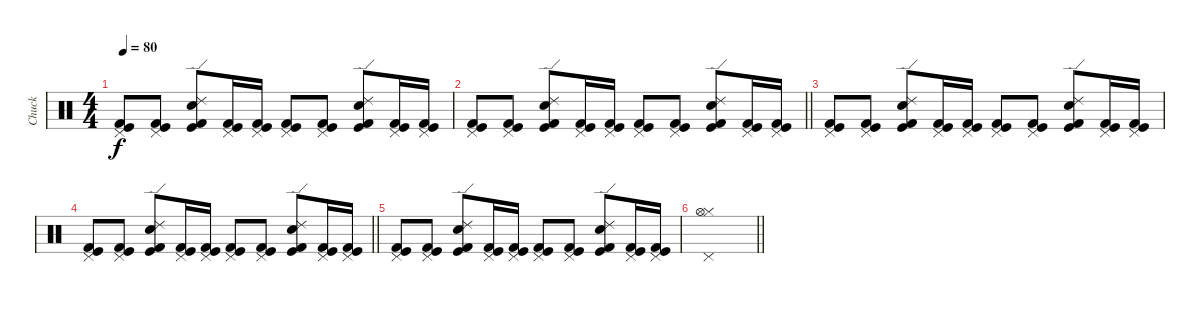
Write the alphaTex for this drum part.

\track ("Chuck" "Chuck") {instrument percussion}
\staff {score}
\articulation defaults
\ts (4 4)
\tempo 80
\clef neutral
\ks c
("Pedal Hi-Hat (hit)" "Kick (hit)" "Kick (hit) 2").8{dy f} ("Pedal Hi-Hat (hit)" "Kick (hit)" "Kick (hit) 2").8 ("Ride (edge) 2" "Kick (hit)" "Kick (hit) 2" "Electric Snare (hit)").8 ("Pedal Hi-Hat (hit)" "Kick (hit)" "Kick (hit) 2").16 ("Pedal Hi-Hat (hit)" "Kick (hit)" "Kick (hit) 2").16 ("Pedal Hi-Hat (hit)" "Kick (hit)" "Kick (hit) 2").8 ("Pedal Hi-Hat (hit)" "Kick (hit)" "Kick (hit) 2").8 ("Ride (edge) 2" "Kick (hit)" "Kick (hit) 2" "Electric Snare (hit)").8 ("Pedal Hi-Hat (hit)" "Kick (hit)" "Kick (hit) 2").16 ("Pedal Hi-Hat (hit)" "Kick (hit)" "Kick (hit) 2").16 |
\barLineRight lightlight
("Pedal Hi-Hat (hit)" "Kick (hit)" "Kick (hit) 2").8 ("Pedal Hi-Hat (hit)" "Kick (hit)" "Kick (hit) 2").8 ("Ride (edge) 2" "Kick (hit)" "Kick (hit) 2" "Electric Snare (hit)").8 ("Pedal Hi-Hat (hit)" "Kick (hit)" "Kick (hit) 2").16 ("Pedal Hi-Hat (hit)" "Kick (hit)" "Kick (hit) 2").16 ("Pedal Hi-Hat (hit)" "Kick (hit)" "Kick (hit) 2").8 ("Pedal Hi-Hat (hit)" "Kick (hit)" "Kick (hit) 2").8 ("Ride (edge) 2" "Kick (hit)" "Kick (hit) 2" "Electric Snare (hit)").8 ("Pedal Hi-Hat (hit)" "Kick (hit)" "Kick (hit) 2").16 ("Pedal Hi-Hat (hit)" "Kick (hit)" "Kick (hit) 2").16 |
("Pedal Hi-Hat (hit)" "Kick (hit)" "Kick (hit) 2").8 ("Pedal Hi-Hat (hit)" "Kick (hit)" "Kick (hit) 2").8 ("Ride (edge) 2" "Kick (hit)" "Kick (hit) 2" "Electric Snare (hit)").8 ("Pedal Hi-Hat (hit)" "Kick (hit)" "Kick (hit) 2").16 ("Pedal Hi-Hat (hit)" "Kick (hit)" "Kick (hit) 2").16 ("Pedal Hi-Hat (hit)" "Kick (hit)" "Kick (hit) 2").8 ("Pedal Hi-Hat (hit)" "Kick (hit)" "Kick (hit) 2").8 ("Ride (edge) 2" "Kick (hit)" "Kick (hit) 2" "Electric Snare (hit)").8 ("Pedal Hi-Hat (hit)" "Kick (hit)" "Kick (hit) 2").16 ("Pedal Hi-Hat (hit)" "Kick (hit)" "Kick (hit) 2").16 |
\barLineRight lightlight
("Pedal Hi-Hat (hit)" "Kick (hit)" "Kick (hit) 2").8 ("Pedal Hi-Hat (hit)" "Kick (hit)" "Kick (hit) 2").8 ("Ride (edge) 2" "Kick (hit)" "Kick (hit) 2" "Electric Snare (hit)").8 ("Pedal Hi-Hat (hit)" "Kick (hit)" "Kick (hit) 2").16 ("Pedal Hi-Hat (hit)" "Kick (hit)" "Kick (hit) 2").16 ("Pedal Hi-Hat (hit)" "Kick (hit)" "Kick (hit) 2").8 ("Pedal Hi-Hat (hit)" "Kick (hit)" "Kick (hit) 2").8 ("Ride (edge) 2" "Kick (hit)" "Kick (hit) 2" "Electric Snare (hit)").8 ("Pedal Hi-Hat (hit)" "Kick (hit)" "Kick (hit) 2").16 ("Pedal Hi-Hat (hit)" "Kick (hit)" "Kick (hit) 2").16 |
("Pedal Hi-Hat (hit)" "Kick (hit)" "Kick (hit) 2").8 ("Pedal Hi-Hat (hit)" "Kick (hit)" "Kick (hit) 2").8 ("Ride (edge) 2" "Kick (hit)" "Kick (hit) 2" "Electric Snare (hit)").8 ("Pedal Hi-Hat (hit)" "Kick (hit)" "Kick (hit) 2").16 ("Pedal Hi-Hat (hit)" "Kick (hit)" "Kick (hit) 2").16 ("Pedal Hi-Hat (hit)" "Kick (hit)" "Kick (hit) 2").8 ("Pedal Hi-Hat (hit)" "Kick (hit)" "Kick (hit) 2").8 ("Ride (edge) 2" "Kick (hit)" "Kick (hit) 2" "Electric Snare (hit)").8 ("Pedal Hi-Hat (hit)" "Kick (hit)" "Kick (hit) 2").16 ("Pedal Hi-Hat (hit)" "Kick (hit)" "Kick (hit) 2").16 |
\barLineRight lightlight
("Hi-Hat (closed)" "Pedal Hi-Hat (hit)" "Hi-Hat (open)").1
